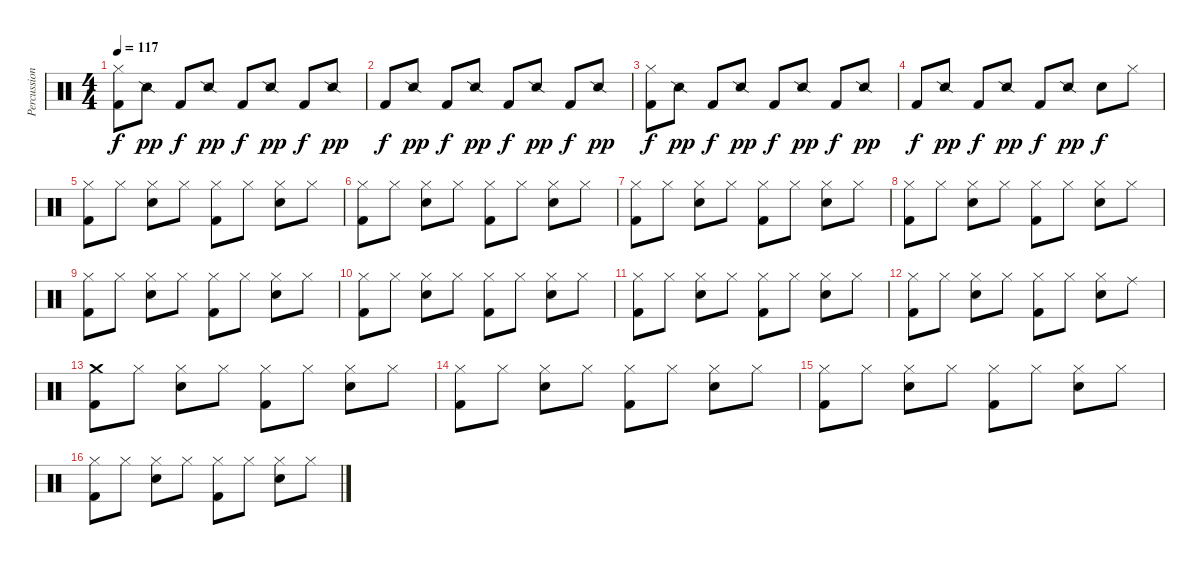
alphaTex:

\track ("Percussions" "Percussion") {instrument percussion}
\staff {score}
\articulation defaults
\ts (4 4)
\tempo 117
\clef neutral
\ks c
("Hi-Hat (closed)" "Kick (hit) 2").8{dy f} "Snare (side stick) 2".8{dy pp} "Kick (hit) 2".8{dy f} "Snare (side stick) 2".8{dy pp} "Kick (hit) 2".8{dy f} "Snare (side stick) 2".8{dy pp} "Kick (hit) 2".8{dy f} "Snare (side stick) 2".8{dy pp} |
"Kick (hit) 2".8{dy f} "Snare (side stick) 2".8{dy pp} "Kick (hit) 2".8{dy f} "Snare (side stick) 2".8{dy pp} "Kick (hit) 2".8{dy f} "Snare (side stick) 2".8{dy pp} "Kick (hit) 2".8{dy f} "Snare (side stick) 2".8{dy pp} |
("Hi-Hat (closed)" "Kick (hit) 2").8{dy f} "Snare (side stick) 2".8{dy pp} "Kick (hit) 2".8{dy f} "Snare (side stick) 2".8{dy pp} "Kick (hit) 2".8{dy f} "Snare (side stick) 2".8{dy pp} "Kick (hit) 2".8{dy f} "Snare (side stick) 2".8{dy pp} |
"Kick (hit) 2".8{dy f} "Snare (side stick) 2".8{dy pp} "Kick (hit) 2".8{dy f} "Snare (side stick) 2".8{dy pp} "Kick (hit) 2".8{dy f} "Snare (side stick) 2".8{dy pp} "Electric Snare (hit)".8{dy f} "Hi-Hat (closed)".8 |
("Hi-Hat (closed)" "Kick (hit) 2").8 "Hi-Hat (closed)".8 ("Hi-Hat (closed)" "Electric Snare (hit)").8 "Hi-Hat (closed)".8 ("Hi-Hat (closed)" "Kick (hit) 2").8 "Hi-Hat (closed)".8 ("Hi-Hat (closed)" "Electric Snare (hit)").8 "Hi-Hat (closed)".8 |
("Hi-Hat (closed)" "Kick (hit) 2").8 "Hi-Hat (closed)".8 ("Hi-Hat (closed)" "Electric Snare (hit)").8 "Hi-Hat (closed)".8 ("Hi-Hat (closed)" "Kick (hit) 2").8 "Hi-Hat (closed)".8 ("Hi-Hat (closed)" "Electric Snare (hit)").8 "Hi-Hat (closed)".8 |
("Hi-Hat (closed)" "Kick (hit) 2").8 "Hi-Hat (closed)".8 ("Hi-Hat (closed)" "Electric Snare (hit)").8 "Hi-Hat (closed)".8 ("Hi-Hat (closed)" "Kick (hit) 2").8 "Hi-Hat (closed)".8 ("Hi-Hat (closed)" "Electric Snare (hit)").8 "Hi-Hat (closed)".8 |
("Hi-Hat (closed)" "Kick (hit) 2").8 "Hi-Hat (closed)".8 ("Hi-Hat (closed)" "Electric Snare (hit)").8 "Hi-Hat (closed)".8 ("Hi-Hat (closed)" "Kick (hit) 2").8 "Hi-Hat (closed)".8 ("Hi-Hat (closed)" "Electric Snare (hit)").8 "Hi-Hat (closed)".8 |
("Hi-Hat (closed)" "Kick (hit) 2").8 "Hi-Hat (closed)".8 ("Hi-Hat (closed)" "Electric Snare (hit)").8 "Hi-Hat (closed)".8 ("Hi-Hat (closed)" "Kick (hit) 2").8 "Hi-Hat (closed)".8 ("Hi-Hat (closed)" "Electric Snare (hit)").8 "Hi-Hat (closed)".8 |
("Hi-Hat (closed)" "Kick (hit) 2").8 "Hi-Hat (closed)".8 ("Hi-Hat (closed)" "Electric Snare (hit)").8 "Hi-Hat (closed)".8 ("Hi-Hat (closed)" "Kick (hit) 2").8 "Hi-Hat (closed)".8 ("Hi-Hat (closed)" "Electric Snare (hit)").8 "Hi-Hat (closed)".8 |
("Hi-Hat (closed)" "Kick (hit) 2").8 "Hi-Hat (closed)".8 ("Hi-Hat (closed)" "Electric Snare (hit)").8 "Hi-Hat (closed)".8 ("Hi-Hat (closed)" "Kick (hit) 2").8 "Hi-Hat (closed)".8 ("Hi-Hat (closed)" "Electric Snare (hit)").8 "Hi-Hat (closed)".8 |
("Hi-Hat (closed)" "Kick (hit) 2").8 "Hi-Hat (closed)".8 ("Hi-Hat (closed)" "Electric Snare (hit)").8 "Hi-Hat (closed)".8 ("Hi-Hat (closed)" "Kick (hit) 2").8 "Hi-Hat (closed)".8 ("Hi-Hat (closed)" "Electric Snare (hit)").8 "Ride (middle)".8 |
("Crash medium (hit)" "Kick (hit) 2").8 "Hi-Hat (closed)".8 ("Hi-Hat (closed)" "Electric Snare (hit)").8 "Hi-Hat (closed)".8 ("Hi-Hat (closed)" "Kick (hit) 2").8 "Hi-Hat (closed)".8 ("Hi-Hat (closed)" "Electric Snare (hit)").8 "Hi-Hat (closed)".8 |
("Hi-Hat (closed)" "Kick (hit) 2").8 "Hi-Hat (closed)".8 ("Hi-Hat (closed)" "Electric Snare (hit)").8 "Hi-Hat (closed)".8 ("Hi-Hat (closed)" "Kick (hit) 2").8 "Hi-Hat (closed)".8 ("Hi-Hat (closed)" "Electric Snare (hit)").8 "Hi-Hat (closed)".8 |
("Hi-Hat (closed)" "Kick (hit) 2").8 "Hi-Hat (closed)".8 ("Hi-Hat (closed)" "Electric Snare (hit)").8 "Hi-Hat (closed)".8 ("Hi-Hat (closed)" "Kick (hit) 2").8 "Hi-Hat (closed)".8 ("Hi-Hat (closed)" "Electric Snare (hit)").8 "Hi-Hat (closed)".8 |
("Hi-Hat (closed)" "Kick (hit) 2").8 "Hi-Hat (closed)".8 ("Hi-Hat (closed)" "Electric Snare (hit)").8 "Hi-Hat (closed)".8 ("Hi-Hat (closed)" "Kick (hit) 2").8 "Hi-Hat (closed)".8 ("Hi-Hat (closed)" "Electric Snare (hit)").8 "Hi-Hat (closed)".8
